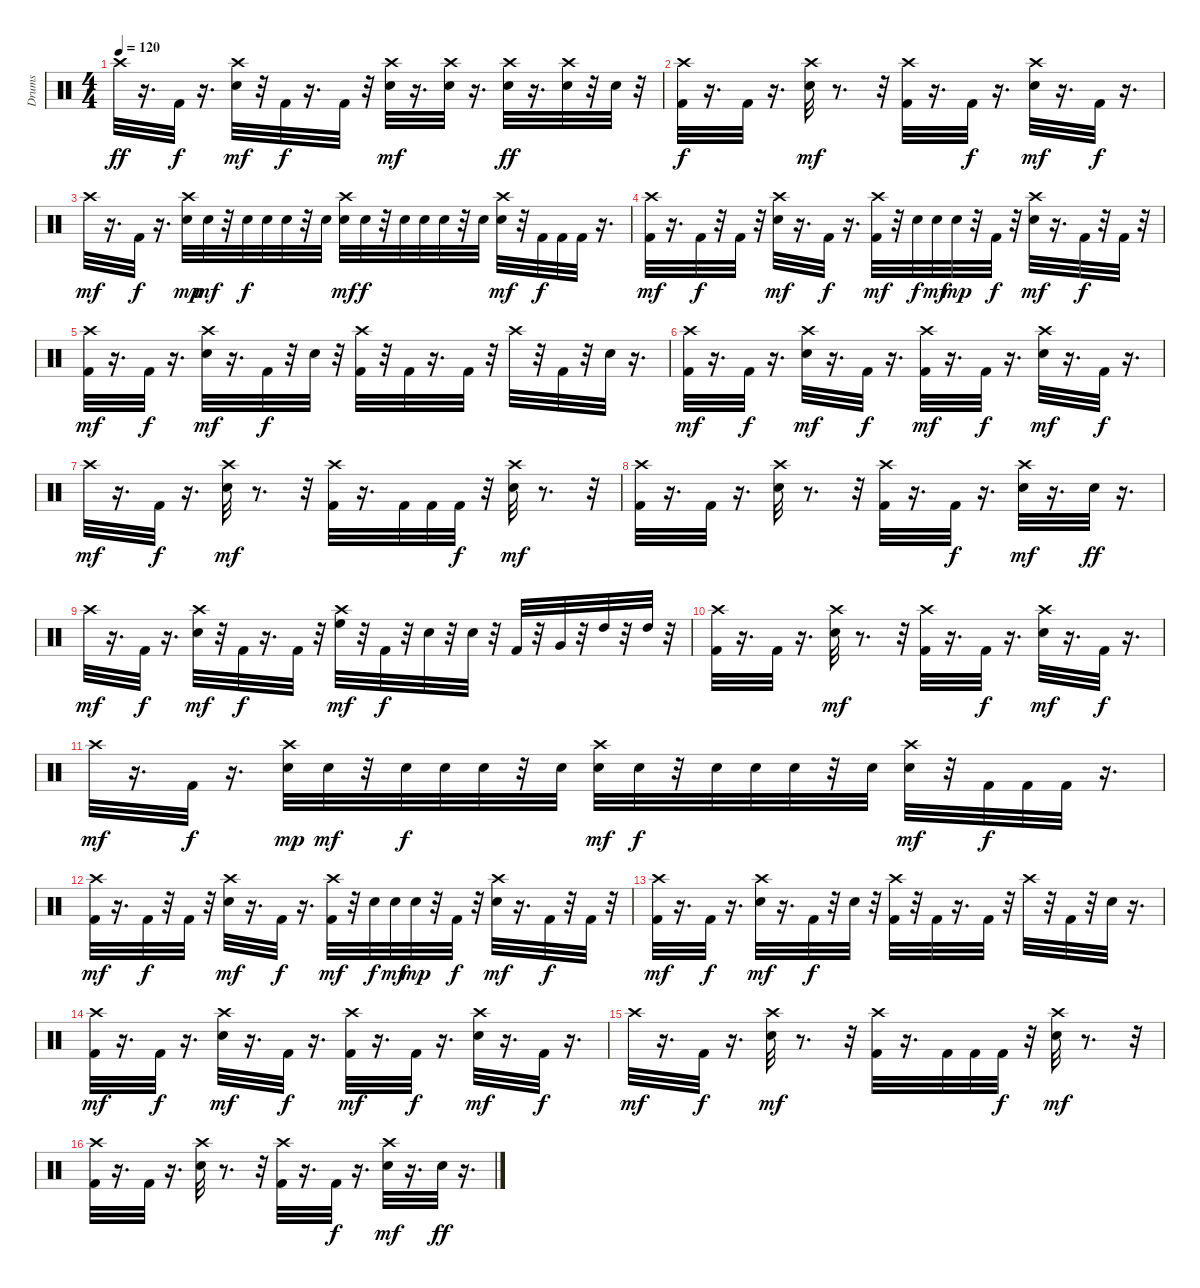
\track ("Drums" "Drums") {instrument percussion}
\staff {score}
\articulation defaults
\ts (4 4)
\tempo 120
\clef neutral
\ks c "Crash high (hit)".32{dy ff}
r.16{d} "Kick (hit) 2".32{dy f} r.16{d} ("Crash high (hit)" "Snare (hit) 2").32{dy mf} r.32 "Kick (hit) 2".32{dy f} r.16{d} "Kick (hit) 2".32 r.32 ("Crash high (hit)" "Snare (hit) 2").32{dy mf} r.16{d} ("Crash high (hit)" "Snare (hit) 2").32 r.16{d} ("Crash high (hit)" "Snare (hit) 2").32{dy ff} r.16{d} ("Crash high (hit)" "Snare (hit) 2").32 r.32 "Snare (hit) 2".32 r.32 |
("Crash high (hit)" "Kick (hit) 2").32{dy f} r.16{d} "Kick (hit) 2".32 r.16{d} ("Crash high (hit)" "Snare (hit) 2").32{dy mf} r.8{d} r.32 ("Crash high (hit)" "Kick (hit) 2").32 r.16{d} "Kick (hit) 2".32{dy f} r.16{d} ("Crash high (hit)" "Snare (hit) 2").32{dy mf} r.16{d} "Kick (hit) 2".32{dy f} r.16{d} |
"Crash high (hit)".32{dy mf} r.16{d} "Kick (hit) 2".32{dy f} r.16{d} ("Crash high (hit)" "Snare (hit) 2").32{dy mp} "Snare (hit) 2".32{dy mf} r.32 "Snare (hit) 2".32{dy f} "Snare (hit) 2".32 "Snare (hit) 2".32 r.32 "Snare (hit) 2".32 ("Crash high (hit)" "Snare (hit) 2").32{dy mf} "Snare (hit) 2".32{dy f} r.32 "Snare (hit) 2".32 "Snare (hit) 2".32 "Snare (hit) 2".32 r.32 "Snare (hit) 2".32 ("Crash high (hit)" "Snare (hit) 2").32{dy mf} r.32 "Kick (hit) 2".32{dy f} "Kick (hit) 2".32 "Kick (hit) 2".32 r.16{d} |
("Crash high (hit)" "Kick (hit) 2").32{dy mf} r.16{d} "Kick (hit) 2".32{dy f} r.32 "Kick (hit) 2".32 r.32 ("Crash high (hit)" "Snare (hit) 2").32{dy mf} r.16{d} "Kick (hit) 2".32{dy f} r.16{d} ("Crash high (hit)" "Kick (hit) 2").32{dy mf} r.32 "Snare (hit) 2".32{dy f} "Snare (hit) 2".32{dy mf} "Snare (hit) 2".32{dy mp} r.32 "Kick (hit) 2".32{dy f} r.32 ("Crash high (hit)" "Snare (hit) 2").32{dy mf} r.16{d} "Kick (hit) 2".32{dy f} r.32 "Kick (hit) 2".32 r.32 |
("Crash high (hit)" "Kick (hit) 2").32{dy mf} r.16{d} "Kick (hit) 2".32{dy f} r.16{d} ("Crash high (hit)" "Snare (hit) 2").32{dy mf} r.16{d} "Kick (hit) 2".32{dy f} r.32 "Snare (hit) 2".32 r.32 ("Crash high (hit)" "Kick (hit) 2").32 r.32 "Kick (hit) 2".32 r.16{d} "Kick (hit) 2".32 r.32 "Crash high (hit)".32 r.32 "Kick (hit) 2".32 r.32 "Snare (hit) 2".32 r.16{d} |
("Crash high (hit)" "Kick (hit) 2").32{dy mf} r.16{d} "Kick (hit) 2".32{dy f} r.16{d} ("Crash high (hit)" "Snare (hit) 2").32{dy mf} r.16{d} "Kick (hit) 2".32{dy f} r.16{d} ("Crash high (hit)" "Kick (hit) 2").32{dy mf} r.16{d} "Kick (hit) 2".32{dy f} r.16{d} ("Crash high (hit)" "Snare (hit) 2").32{dy mf} r.16{d} "Kick (hit) 2".32{dy f} r.16{d} |
"Crash high (hit)".32{dy mf} r.16{d} "Kick (hit) 2".32{dy f} r.16{d} ("Crash high (hit)" "Snare (hit) 2").32{dy mf} r.8{d} r.32 ("Crash high (hit)" "Kick (hit) 2").32 r.16{d} "Kick (hit) 2".32 "Kick (hit) 2".32 "Kick (hit) 2".32{dy f} r.32 ("Crash high (hit)" "Snare (hit) 2").32{dy mf} r.8{d} r.32 |
("Crash high (hit)" "Kick (hit) 2").32 r.16{d} "Kick (hit) 2".32 r.16{d} ("Crash high (hit)" "Snare (hit) 2").32 r.8{d} r.32 ("Crash high (hit)" "Kick (hit) 2").32 r.16{d} "Kick (hit) 2".32{dy f} r.16{d} ("Crash high (hit)" "Snare (hit) 2").32{dy mf} r.16{d} "Snare (hit) 2".32{dy ff} r.16{d} |
"Crash high (hit)".32{dy mf} r.16{d} "Kick (hit) 2".32{dy f} r.16{d} ("Snare (hit) 2" "Crash high (hit)").32{dy mf} r.32 "Kick (hit) 2".32{dy f} r.16{d} "Kick (hit) 2".32 r.32 ("High Floor Tom (hit)" "Crash high (hit)").32{dy mf} r.32 "Kick (hit) 2".32{dy f} r.32 "Snare (hit) 2".32 r.32 "Snare (hit) 2".32 r.32 "Kick (hit) 2".32 r.32 "Very Low Tom (hit)".32 r.32 "High Tom (hit)".32 r.32 "High Tom (hit)".32 r.32 |
("Crash high (hit)" "Kick (hit) 2").32 r.16{d} "Kick (hit) 2".32 r.16{d} ("Crash high (hit)" "Snare (hit) 2").32{dy mf} r.8{d} r.32 ("Crash high (hit)" "Kick (hit) 2").32 r.16{d} "Kick (hit) 2".32{dy f} r.16{d} ("Crash high (hit)" "Snare (hit) 2").32{dy mf} r.16{d} "Kick (hit) 2".32{dy f} r.16{d} |
"Crash high (hit)".32{dy mf} r.16{d} "Kick (hit) 2".32{dy f} r.16{d} ("Crash high (hit)" "Snare (hit) 2").32{dy mp} "Snare (hit) 2".32{dy mf} r.32 "Snare (hit) 2".32{dy f} "Snare (hit) 2".32 "Snare (hit) 2".32 r.32 "Snare (hit) 2".32 ("Crash high (hit)" "Snare (hit) 2").32{dy mf} "Snare (hit) 2".32{dy f} r.32 "Snare (hit) 2".32 "Snare (hit) 2".32 "Snare (hit) 2".32 r.32 "Snare (hit) 2".32 ("Crash high (hit)" "Snare (hit) 2").32{dy mf} r.32 "Kick (hit) 2".32{dy f} "Kick (hit) 2".32 "Kick (hit) 2".32 r.16{d} |
("Crash high (hit)" "Kick (hit) 2").32{dy mf} r.16{d} "Kick (hit) 2".32{dy f} r.32 "Kick (hit) 2".32 r.32 ("Crash high (hit)" "Snare (hit) 2").32{dy mf} r.16{d} "Kick (hit) 2".32{dy f} r.16{d} ("Crash high (hit)" "Kick (hit) 2").32{dy mf} r.32 "Snare (hit) 2".32{dy f} "Snare (hit) 2".32{dy mf} "Snare (hit) 2".32{dy mp} r.32 "Kick (hit) 2".32{dy f} r.32 ("Crash high (hit)" "Snare (hit) 2").32{dy mf} r.16{d} "Kick (hit) 2".32{dy f} r.32 "Kick (hit) 2".32 r.32 |
("Crash high (hit)" "Kick (hit) 2").32{dy mf} r.16{d} "Kick (hit) 2".32{dy f} r.16{d} ("Crash high (hit)" "Snare (hit) 2").32{dy mf} r.16{d} "Kick (hit) 2".32{dy f} r.32 "Snare (hit) 2".32 r.32 ("Crash high (hit)" "Kick (hit) 2").32 r.32 "Kick (hit) 2".32 r.16{d} "Kick (hit) 2".32 r.32 "Crash high (hit)".32 r.32 "Kick (hit) 2".32 r.32 "Snare (hit) 2".32 r.16{d} |
("Crash high (hit)" "Kick (hit) 2").32{dy mf} r.16{d} "Kick (hit) 2".32{dy f} r.16{d} ("Crash high (hit)" "Snare (hit) 2").32{dy mf} r.16{d} "Kick (hit) 2".32{dy f} r.16{d} ("Crash high (hit)" "Kick (hit) 2").32{dy mf} r.16{d} "Kick (hit) 2".32{dy f} r.16{d} ("Crash high (hit)" "Snare (hit) 2").32{dy mf} r.16{d} "Kick (hit) 2".32{dy f} r.16{d} |
"Crash high (hit)".32{dy mf} r.16{d} "Kick (hit) 2".32{dy f} r.16{d} ("Crash high (hit)" "Snare (hit) 2").32{dy mf} r.8{d} r.32 ("Crash high (hit)" "Kick (hit) 2").32 r.16{d} "Kick (hit) 2".32 "Kick (hit) 2".32 "Kick (hit) 2".32{dy f} r.32 ("Crash high (hit)" "Snare (hit) 2").32{dy mf} r.8{d} r.32 |
("Crash high (hit)" "Kick (hit) 2").32 r.16{d} "Kick (hit) 2".32 r.16{d} ("Crash high (hit)" "Snare (hit) 2").32 r.8{d} r.32 ("Crash high (hit)" "Kick (hit) 2").32 r.16{d} "Kick (hit) 2".32{dy f} r.16{d} ("Crash high (hit)" "Snare (hit) 2").32{dy mf} r.16{d} "Snare (hit) 2".32{dy ff} r.16{d}
